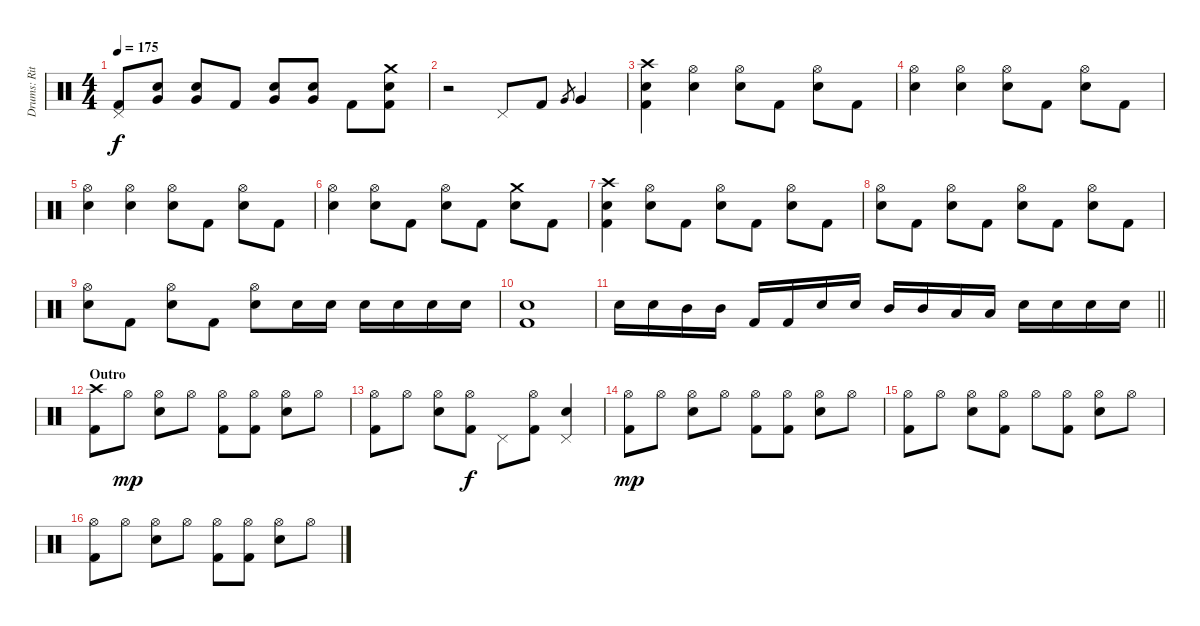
\track ("Drums: Ritsu Tainaka" "Drums: Rit") {instrument percussion}
\staff {score}
\articulation defaults
\ts (4 4)
\tempo 175
\clef neutral
\ks c
("Pedal Hi-Hat (hit)" "Kick (hit) 2").8{dy f} ("Snare (hit) 2" "Very Low Tom (hit)").8 ("Snare (hit) 2" "Very Low Tom (hit)").8 "Kick (hit) 2".8 ("Snare (hit) 2" "Very Low Tom (hit)").8 ("Snare (hit) 2" "Very Low Tom (hit)").8 "Kick (hit) 2".8 ("Crash medium (hit)" "Snare (hit) 2" "Kick (hit) 2").8 |
r.2 "Pedal Hi-Hat (hit)".8 "Kick (hit) 2".8 "Very Low Tom (hit)".8{gr} "Very Low Tom (hit)".4 |
("Crash high (hit)" "Snare (hit) 2" "Kick (hit) 2").4 ("Hi-Hat (open)" "Snare (hit) 2").4 ("Hi-Hat (open)" "Snare (hit) 2").8 "Kick (hit) 2".8 ("Hi-Hat (open)" "Snare (hit) 2").8 "Kick (hit) 2".8 |
("Hi-Hat (open)" "Snare (hit) 2").4 ("Hi-Hat (open)" "Snare (hit) 2").4 ("Hi-Hat (open)" "Snare (hit) 2").8 "Kick (hit) 2".8 ("Hi-Hat (open)" "Snare (hit) 2").8 "Kick (hit) 2".8 |
("Hi-Hat (open)" "Snare (hit) 2").4 ("Hi-Hat (open)" "Snare (hit) 2").4 ("Hi-Hat (open)" "Snare (hit) 2").8 "Kick (hit) 2".8 ("Hi-Hat (open)" "Snare (hit) 2").8 "Kick (hit) 2".8 |
("Hi-Hat (open)" "Snare (hit) 2").4 ("Hi-Hat (open)" "Snare (hit) 2").8 "Kick (hit) 2".8 ("Hi-Hat (open)" "Snare (hit) 2").8 "Kick (hit) 2".8 ("Crash medium (hit)" "Snare (hit) 2").8 "Kick (hit) 2".8 |
("Crash high (hit)" "Snare (hit) 2" "Kick (hit) 2").4 ("Hi-Hat (open)" "Snare (hit) 2").8 "Kick (hit) 2".8 ("Hi-Hat (open)" "Snare (hit) 2").8 "Kick (hit) 2".8 ("Hi-Hat (open)" "Snare (hit) 2").8 "Kick (hit) 2".8 |
("Hi-Hat (open)" "Snare (hit) 2").8 "Kick (hit) 2".8 ("Hi-Hat (open)" "Snare (hit) 2").8 "Kick (hit) 2".8 ("Hi-Hat (open)" "Snare (hit) 2").8 "Kick (hit) 2".8 ("Hi-Hat (open)" "Snare (hit) 2").8 "Kick (hit) 2".8 |
("Hi-Hat (open)" "Snare (hit) 2").8 "Kick (hit) 2".8 ("Hi-Hat (open)" "Snare (hit) 2").8 "Kick (hit) 2".8 ("Hi-Hat (open)" "Snare (hit) 2").8 "Snare (hit) 2".16 "Snare (hit) 2".16 "Snare (hit) 2".16 "Snare (hit) 2".16 "Snare (hit) 2".16 "Snare (hit) 2".16 |
("Snare (hit) 2" "Kick (hit) 2").1 |
\barLineRight lightlight "Snare (hit) 2".16 "Snare (hit) 2".16 "Mid Tom (hit)".16 "Mid Tom (hit)".16 "Kick (hit) 2".16 "Kick (hit) 2".16 "Snare (hit) 2".16 "Snare (hit) 2".16 "Mid Tom (hit)".16 "Mid Tom (hit)".16 "Low Tom (hit)".16 "Low Tom (hit)".16 "Snare (hit) 2".16 "Snare (hit) 2".16 "Snare (hit) 2".16 "Snare (hit) 2".16
|
\section ("" "Outro")
("Crash high (hit)" "Kick (hit) 2").8 "Hi-Hat (open)".8{dy mp} ("Hi-Hat (open)" "Snare (hit) 2").8 "Hi-Hat (open)".8 ("Hi-Hat (open)" "Kick (hit) 2").8 ("Hi-Hat (open)" "Kick (hit) 2").8 ("Hi-Hat (open)" "Snare (hit) 2").8 "Hi-Hat (open)".8 |
("Hi-Hat (open)" "Kick (hit) 2").8 "Hi-Hat (open)".8 ("Hi-Hat (open)" "Snare (hit) 2").8 ("Hi-Hat (open)" "Kick (hit) 2").8{dy f} "Pedal Hi-Hat (hit)".8 ("Hi-Hat (open)" "Kick (hit) 2").8 ("Pedal Hi-Hat (hit)" "Snare (hit) 2").4 |
("Hi-Hat (open)" "Kick (hit) 2").8{dy mp} "Hi-Hat (open)".8 ("Hi-Hat (open)" "Snare (hit) 2").8 "Hi-Hat (open)".8 ("Hi-Hat (open)" "Kick (hit) 2").8 ("Hi-Hat (open)" "Kick (hit) 2").8 ("Hi-Hat (open)" "Snare (hit) 2").8 "Hi-Hat (open)".8 |
("Hi-Hat (open)" "Kick (hit) 2").8 "Hi-Hat (open)".8 ("Hi-Hat (open)" "Snare (hit) 2").8 ("Hi-Hat (open)" "Kick (hit) 2").8 "Hi-Hat (open)".8 ("Hi-Hat (open)" "Kick (hit) 2").8 ("Hi-Hat (open)" "Snare (hit) 2").8 "Hi-Hat (open)".8 |
("Hi-Hat (open)" "Kick (hit) 2").8 "Hi-Hat (open)".8 ("Hi-Hat (open)" "Snare (hit) 2").8 "Hi-Hat (open)".8 ("Hi-Hat (open)" "Kick (hit) 2").8 ("Hi-Hat (open)" "Kick (hit) 2").8 ("Hi-Hat (open)" "Snare (hit) 2").8 "Hi-Hat (open)".8
